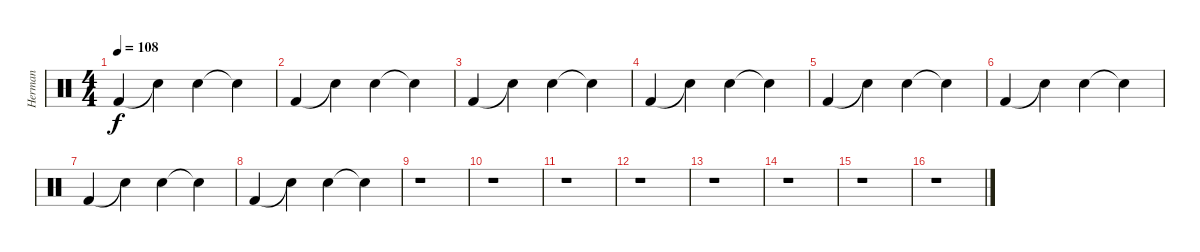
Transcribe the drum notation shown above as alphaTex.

\track ("Herman" "Herman") {instrument percussion}
\staff {score}
\articulation defaults
\ts (4 4)
\tempo 108
\clef neutral
\ks c "Kick (hit) 2".4{dy f} "Snare (hit)"{t}.4 "Snare (hit) 2".4 "Snare (hit)"{t}.4
|
"Kick (hit) 2".4 "Snare (hit)"{t}.4 "Snare (hit) 2".4 "Snare (hit)"{t}.4 |
"Kick (hit) 2".4 "Snare (hit)"{t}.4 "Snare (hit) 2".4 "Snare (hit)"{t}.4 |
"Kick (hit) 2".4 "Snare (hit)"{t}.4 "Snare (hit) 2".4 "Snare (hit)"{t}.4 |
"Kick (hit) 2".4 "Snare (hit)"{t}.4 "Snare (hit) 2".4 "Snare (hit)"{t}.4 |
"Kick (hit) 2".4 "Snare (hit)"{t}.4 "Snare (hit) 2".4 "Snare (hit)"{t}.4 |
"Kick (hit) 2".4 "Snare (hit)"{t}.4 "Snare (hit) 2".4 "Snare (hit)"{t}.4 |
"Kick (hit) 2".4 "Snare (hit)"{t}.4 "Snare (hit) 2".4 "Snare (hit)"{t}.4 |
r.1 |
r.1 |
r.1 |
r.1 |
r.1 |
r.1 |
r.1 |
r.1
